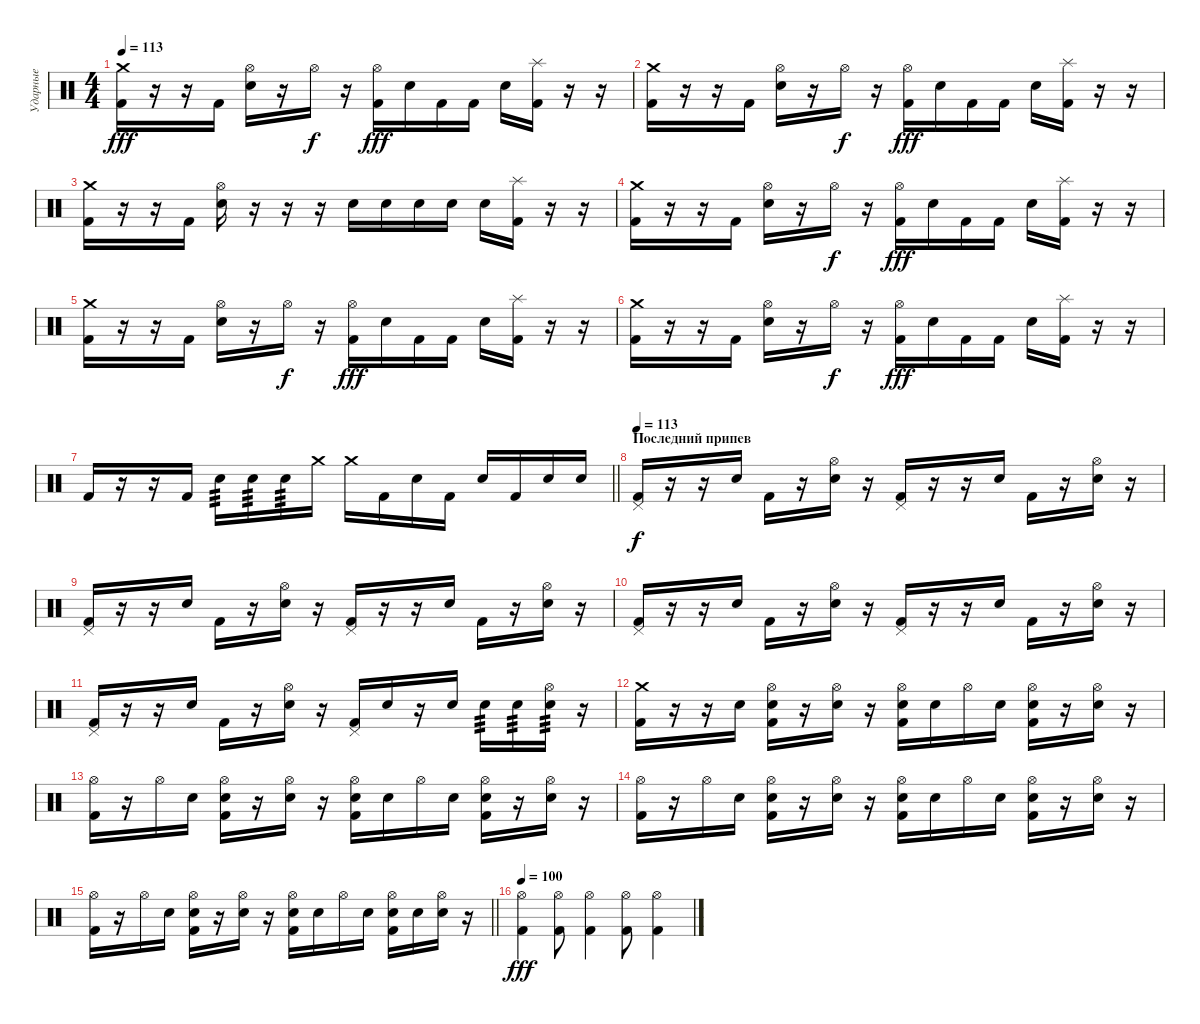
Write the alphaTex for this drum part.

\track ("Ударные" "Ударные") {instrument percussion}
\staff {score}
\articulation defaults
\ts (4 4)
\tempo 113
\clef neutral
\ks c
("Kick (hit) 2" "Crash medium (hit)").16{dy fff} r.16 r.16 "Kick (hit) 2".16 ("Electric Snare (hit)" "Hi-Hat (open)").16 r.16 "Hi-Hat (open)".16{dy f} r.16 ("Kick (hit) 2" "Hi-Hat (open)").16{dy fff} "Electric Snare (hit)".16 "Kick (hit) 2".16 "Kick (hit) 2".16 "Electric Snare (hit)".16 ("Kick (hit) 2" "Splash (hit)").16 r.16 r.16 |
("Kick (hit) 2" "Crash medium (hit)").16 r.16 r.16 "Kick (hit) 2".16 ("Electric Snare (hit)" "Hi-Hat (open)").16 r.16 "Hi-Hat (open)".16{dy f} r.16 ("Kick (hit) 2" "Hi-Hat (open)").16{dy fff} "Electric Snare (hit)".16 "Kick (hit) 2".16 "Kick (hit) 2".16 "Electric Snare (hit)".16 ("Kick (hit) 2" "Splash (hit)").16 r.16 r.16 |
("Kick (hit) 2" "Crash medium (hit)").16 r.16 r.16 "Kick (hit) 2".16 ("Electric Snare (hit)" "Hi-Hat (open)").16 r.16 r.16 r.16 "Electric Snare (hit)".16 "Electric Snare (hit)".16 "Electric Snare (hit)".16 "Electric Snare (hit)".16 "Electric Snare (hit)".16 ("Kick (hit) 2" "Splash (hit)").16 r.16 r.16 |
("Kick (hit) 2" "Crash medium (hit)").16 r.16 r.16 "Kick (hit) 2".16 ("Electric Snare (hit)" "Hi-Hat (open)").16 r.16 "Hi-Hat (open)".16{dy f} r.16 ("Kick (hit) 2" "Hi-Hat (open)").16{dy fff} "Electric Snare (hit)".16 "Kick (hit) 2".16 "Kick (hit) 2".16 "Electric Snare (hit)".16 ("Kick (hit) 2" "Splash (hit)").16 r.16 r.16 |
("Kick (hit) 2" "Crash medium (hit)").16 r.16 r.16 "Kick (hit) 2".16 ("Electric Snare (hit)" "Hi-Hat (open)").16 r.16 "Hi-Hat (open)".16{dy f} r.16 ("Kick (hit) 2" "Hi-Hat (open)").16{dy fff} "Electric Snare (hit)".16 "Kick (hit) 2".16 "Kick (hit) 2".16 "Electric Snare (hit)".16 ("Kick (hit) 2" "Splash (hit)").16 r.16 r.16 |
("Kick (hit) 2" "Crash medium (hit)").16 r.16 r.16 "Kick (hit) 2".16 ("Electric Snare (hit)" "Hi-Hat (open)").16 r.16 "Hi-Hat (open)".16{dy f} r.16 ("Kick (hit) 2" "Hi-Hat (open)").16{dy fff} "Electric Snare (hit)".16 "Kick (hit) 2".16 "Kick (hit) 2".16 "Electric Snare (hit)".16 ("Kick (hit) 2" "Splash (hit)").16 r.16 r.16 |
\barLineRight lightlight "Kick (hit) 2".16
r.16 r.16 "Kick (hit) 2".16 "Electric Snare (hit)".16{tp 3} "Electric Snare (hit)".16{tp 3} "Electric Snare (hit)".16{tp 3} "Crash medium (hit)".16 "Crash medium (hit)".16 "Kick (hit) 2".16 "Electric Snare (hit)".16 "Kick (hit) 2".16 "Electric Snare (hit)".16 "Kick (hit) 2".16 "Electric Snare (hit)".16 "Electric Snare (hit)".16 |
\section ("" "Последний припев")
\tempo 113
("Kick (hit) 2" "Pedal Hi-Hat (hit)").16{dy f} r.16 r.16 "Electric Snare (hit)".16 "Kick (hit) 2".16 r.16 ("Electric Snare (hit)" "Hi-Hat (open)").16 r.16 ("Kick (hit) 2" "Pedal Hi-Hat (hit)").16 r.16 r.16 "Electric Snare (hit)".16 "Kick (hit) 2".16 r.16 ("Electric Snare (hit)" "Hi-Hat (open)").16 r.16 |
("Kick (hit) 2" "Pedal Hi-Hat (hit)").16 r.16 r.16 "Electric Snare (hit)".16 "Kick (hit) 2".16 r.16 ("Electric Snare (hit)" "Hi-Hat (open)").16 r.16 ("Kick (hit) 2" "Pedal Hi-Hat (hit)").16 r.16 r.16 "Electric Snare (hit)".16 "Kick (hit) 2".16 r.16 ("Electric Snare (hit)" "Hi-Hat (open)").16 r.16 |
("Kick (hit) 2" "Pedal Hi-Hat (hit)").16 r.16 r.16 "Electric Snare (hit)".16 "Kick (hit) 2".16 r.16 ("Electric Snare (hit)" "Hi-Hat (open)").16 r.16 ("Kick (hit) 2" "Pedal Hi-Hat (hit)").16 r.16 r.16 "Electric Snare (hit)".16 "Kick (hit) 2".16 r.16 ("Electric Snare (hit)" "Hi-Hat (open)").16 r.16 |
("Kick (hit) 2" "Pedal Hi-Hat (hit)").16 r.16 r.16 "Electric Snare (hit)".16 "Kick (hit) 2".16 r.16 ("Electric Snare (hit)" "Hi-Hat (open)").16 r.16 ("Kick (hit) 2" "Pedal Hi-Hat (hit)").16 "Electric Snare (hit)".16 r.16 "Electric Snare (hit)".16 "Electric Snare (hit)".16{tp 3} "Electric Snare (hit)".16{tp 3} ("Electric Snare (hit)" "Hi-Hat (open)").16{tp 3} r.16 |
("Kick (hit) 2" "Crash medium (hit)").16 r.16 r.16 "Electric Snare (hit)".16 ("Electric Snare (hit)" "Kick (hit) 2" "Hi-Hat (open)").16 r.16 ("Electric Snare (hit)" "Hi-Hat (open)").16 r.16 ("Electric Snare (hit)" "Kick (hit) 2" "Hi-Hat (open)").16 "Electric Snare (hit)".16 "Hi-Hat (open)".16 "Electric Snare (hit)".16 ("Electric Snare (hit)" "Kick (hit) 2" "Hi-Hat (open)").16 r.16 ("Electric Snare (hit)" "Hi-Hat (open)").16 r.16 |
("Kick (hit) 2" "Hi-Hat (open)").16 r.16 "Hi-Hat (open)".16 "Electric Snare (hit)".16 ("Electric Snare (hit)" "Kick (hit) 2" "Hi-Hat (open)").16 r.16 ("Electric Snare (hit)" "Hi-Hat (open)").16 r.16 ("Electric Snare (hit)" "Kick (hit) 2" "Hi-Hat (open)").16 "Electric Snare (hit)".16 "Hi-Hat (open)".16 "Electric Snare (hit)".16 ("Electric Snare (hit)" "Kick (hit) 2" "Hi-Hat (open)").16 r.16 ("Electric Snare (hit)" "Hi-Hat (open)").16 r.16 |
("Kick (hit) 2" "Hi-Hat (open)").16 r.16 "Hi-Hat (open)".16 "Electric Snare (hit)".16 ("Electric Snare (hit)" "Kick (hit) 2" "Hi-Hat (open)").16 r.16 ("Electric Snare (hit)" "Hi-Hat (open)").16 r.16 ("Electric Snare (hit)" "Kick (hit) 2" "Hi-Hat (open)").16 "Electric Snare (hit)".16 "Hi-Hat (open)".16 "Electric Snare (hit)".16 ("Electric Snare (hit)" "Kick (hit) 2" "Hi-Hat (open)").16 r.16 ("Electric Snare (hit)" "Hi-Hat (open)").16 r.16 |
\barLineRight lightlight
("Kick (hit) 2" "Hi-Hat (open)").16 r.16 "Hi-Hat (open)".16 "Electric Snare (hit)".16 ("Electric Snare (hit)" "Kick (hit) 2" "Hi-Hat (open)").16 r.16 ("Electric Snare (hit)" "Hi-Hat (open)").16 r.16 ("Electric Snare (hit)" "Kick (hit) 2" "Hi-Hat (open)").16 "Electric Snare (hit)".16 "Hi-Hat (open)".16 "Electric Snare (hit)".16 ("Electric Snare (hit)" "Kick (hit) 2" "Hi-Hat (open)").16 "Electric Snare (hit)".16 ("Electric Snare (hit)" "Hi-Hat (open)").16 r.16 |
\tempo 100
("Kick (hit) 2" "Hi-Hat (open)").4{dy fff} ("Kick (hit) 2" "Hi-Hat (open)").8 ("Kick (hit) 2" "Hi-Hat (open)").4 ("Kick (hit) 2" "Hi-Hat (open)").8 ("Kick (hit) 2" "Hi-Hat (open)").4
